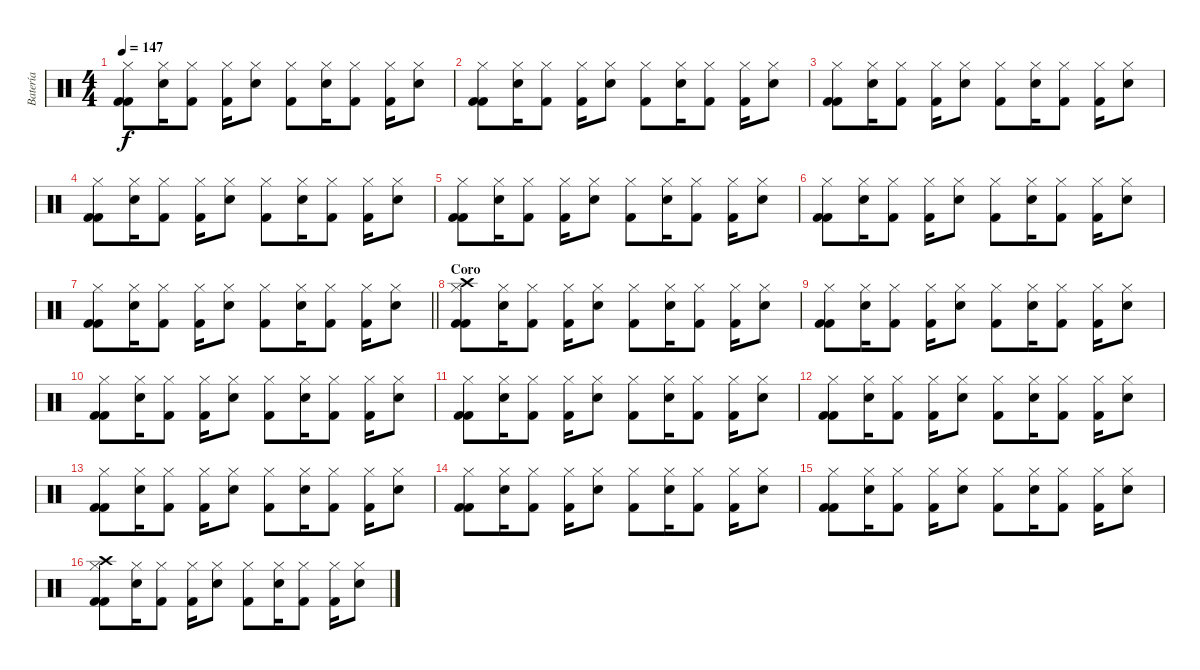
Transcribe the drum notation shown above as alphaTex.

\track ("Batería" "Batería") {instrument percussion}
\staff {score}
\articulation defaults
\ts (4 4)
\tempo 147
\clef neutral
\ks c
("Hi-Hat (closed)" "Kick (hit) 2" "Kick (hit) 2").8{dy f} ("Hi-Hat (closed)" "Electric Snare (hit)").16 ("Hi-Hat (closed)" "Kick (hit) 2").8 ("Hi-Hat (closed)" "Kick (hit) 2").16 ("Hi-Hat (closed)" "Electric Snare (hit)").8 ("Hi-Hat (closed)" "Kick (hit) 2").8 ("Hi-Hat (closed)" "Electric Snare (hit)").16 ("Hi-Hat (closed)" "Kick (hit) 2").8 ("Hi-Hat (closed)" "Kick (hit) 2").16 ("Hi-Hat (closed)" "Electric Snare (hit)").8 |
("Hi-Hat (closed)" "Kick (hit) 2" "Kick (hit) 2").8 ("Hi-Hat (closed)" "Electric Snare (hit)").16 ("Hi-Hat (closed)" "Kick (hit) 2").8 ("Hi-Hat (closed)" "Kick (hit) 2").16 ("Hi-Hat (closed)" "Electric Snare (hit)").8 ("Hi-Hat (closed)" "Kick (hit) 2").8 ("Hi-Hat (closed)" "Electric Snare (hit)").16 ("Hi-Hat (closed)" "Kick (hit) 2").8 ("Hi-Hat (closed)" "Kick (hit) 2").16 ("Hi-Hat (closed)" "Electric Snare (hit)").8 |
("Hi-Hat (closed)" "Kick (hit) 2" "Kick (hit) 2").8 ("Hi-Hat (closed)" "Electric Snare (hit)").16 ("Hi-Hat (closed)" "Kick (hit) 2").8 ("Hi-Hat (closed)" "Kick (hit) 2").16 ("Hi-Hat (closed)" "Electric Snare (hit)").8 ("Hi-Hat (closed)" "Kick (hit) 2").8 ("Hi-Hat (closed)" "Electric Snare (hit)").16 ("Hi-Hat (closed)" "Kick (hit) 2").8 ("Hi-Hat (closed)" "Kick (hit) 2").16 ("Hi-Hat (closed)" "Electric Snare (hit)").8 |
("Hi-Hat (closed)" "Kick (hit) 2" "Kick (hit) 2").8 ("Hi-Hat (closed)" "Electric Snare (hit)").16 ("Hi-Hat (closed)" "Kick (hit) 2").8 ("Hi-Hat (closed)" "Kick (hit) 2").16 ("Hi-Hat (closed)" "Electric Snare (hit)").8 ("Hi-Hat (closed)" "Kick (hit) 2").8 ("Hi-Hat (closed)" "Electric Snare (hit)").16 ("Hi-Hat (closed)" "Kick (hit) 2").8 ("Hi-Hat (closed)" "Kick (hit) 2").16 ("Hi-Hat (closed)" "Electric Snare (hit)").8 |
("Hi-Hat (closed)" "Kick (hit) 2" "Kick (hit) 2").8 ("Hi-Hat (closed)" "Electric Snare (hit)").16 ("Hi-Hat (closed)" "Kick (hit) 2").8 ("Hi-Hat (closed)" "Kick (hit) 2").16 ("Hi-Hat (closed)" "Electric Snare (hit)").8 ("Hi-Hat (closed)" "Kick (hit) 2").8 ("Hi-Hat (closed)" "Electric Snare (hit)").16 ("Hi-Hat (closed)" "Kick (hit) 2").8 ("Hi-Hat (closed)" "Kick (hit) 2").16 ("Hi-Hat (closed)" "Electric Snare (hit)").8 |
("Hi-Hat (closed)" "Kick (hit) 2" "Kick (hit) 2").8 ("Hi-Hat (closed)" "Electric Snare (hit)").16 ("Hi-Hat (closed)" "Kick (hit) 2").8 ("Hi-Hat (closed)" "Kick (hit) 2").16 ("Hi-Hat (closed)" "Electric Snare (hit)").8 ("Hi-Hat (closed)" "Kick (hit) 2").8 ("Hi-Hat (closed)" "Electric Snare (hit)").16 ("Hi-Hat (closed)" "Kick (hit) 2").8 ("Hi-Hat (closed)" "Kick (hit) 2").16 ("Hi-Hat (closed)" "Electric Snare (hit)").8 |
\barLineRight lightlight
("Hi-Hat (closed)" "Kick (hit) 2" "Kick (hit) 2").8 ("Hi-Hat (closed)" "Electric Snare (hit)").16 ("Hi-Hat (closed)" "Kick (hit) 2").8 ("Hi-Hat (closed)" "Kick (hit) 2").16 ("Hi-Hat (closed)" "Electric Snare (hit)").8 ("Hi-Hat (closed)" "Kick (hit) 2").8 ("Hi-Hat (closed)" "Electric Snare (hit)").16 ("Hi-Hat (closed)" "Kick (hit) 2").8 ("Hi-Hat (closed)" "Kick (hit) 2").16 ("Hi-Hat (closed)" "Electric Snare (hit)").8 |
\section ("" "Coro")
("Crash high (hit)" "Hi-Hat (closed)" "Kick (hit) 2" "Kick (hit) 2").8 ("Hi-Hat (closed)" "Electric Snare (hit)").16 ("Hi-Hat (closed)" "Kick (hit) 2").8 ("Hi-Hat (closed)" "Kick (hit) 2").16 ("Hi-Hat (closed)" "Electric Snare (hit)").8 ("Hi-Hat (closed)" "Kick (hit) 2").8 ("Hi-Hat (closed)" "Electric Snare (hit)").16 ("Hi-Hat (closed)" "Kick (hit) 2").8 ("Hi-Hat (closed)" "Kick (hit) 2").16 ("Hi-Hat (closed)" "Electric Snare (hit)").8 |
("Hi-Hat (closed)" "Kick (hit) 2" "Kick (hit) 2").8 ("Hi-Hat (closed)" "Electric Snare (hit)").16 ("Hi-Hat (closed)" "Kick (hit) 2").8 ("Hi-Hat (closed)" "Kick (hit) 2").16 ("Hi-Hat (closed)" "Electric Snare (hit)").8 ("Hi-Hat (closed)" "Kick (hit) 2").8 ("Hi-Hat (closed)" "Electric Snare (hit)").16 ("Hi-Hat (closed)" "Kick (hit) 2").8 ("Hi-Hat (closed)" "Kick (hit) 2").16 ("Hi-Hat (closed)" "Electric Snare (hit)").8 |
("Hi-Hat (closed)" "Kick (hit) 2" "Kick (hit) 2").8 ("Hi-Hat (closed)" "Electric Snare (hit)").16 ("Hi-Hat (closed)" "Kick (hit) 2").8 ("Hi-Hat (closed)" "Kick (hit) 2").16 ("Hi-Hat (closed)" "Electric Snare (hit)").8 ("Hi-Hat (closed)" "Kick (hit) 2").8 ("Hi-Hat (closed)" "Electric Snare (hit)").16 ("Hi-Hat (closed)" "Kick (hit) 2").8 ("Hi-Hat (closed)" "Kick (hit) 2").16 ("Hi-Hat (closed)" "Electric Snare (hit)").8 |
("Hi-Hat (closed)" "Kick (hit) 2" "Kick (hit) 2").8 ("Hi-Hat (closed)" "Electric Snare (hit)").16 ("Hi-Hat (closed)" "Kick (hit) 2").8 ("Hi-Hat (closed)" "Kick (hit) 2").16 ("Hi-Hat (closed)" "Electric Snare (hit)").8 ("Hi-Hat (closed)" "Kick (hit) 2").8 ("Hi-Hat (closed)" "Electric Snare (hit)").16 ("Hi-Hat (closed)" "Kick (hit) 2").8 ("Hi-Hat (closed)" "Kick (hit) 2").16 ("Hi-Hat (closed)" "Electric Snare (hit)").8 |
("Hi-Hat (closed)" "Kick (hit) 2" "Kick (hit) 2").8 ("Hi-Hat (closed)" "Electric Snare (hit)").16 ("Hi-Hat (closed)" "Kick (hit) 2").8 ("Hi-Hat (closed)" "Kick (hit) 2").16 ("Hi-Hat (closed)" "Electric Snare (hit)").8 ("Hi-Hat (closed)" "Kick (hit) 2").8 ("Hi-Hat (closed)" "Electric Snare (hit)").16 ("Hi-Hat (closed)" "Kick (hit) 2").8 ("Hi-Hat (closed)" "Kick (hit) 2").16 ("Hi-Hat (closed)" "Electric Snare (hit)").8 |
("Hi-Hat (closed)" "Kick (hit) 2" "Kick (hit) 2").8 ("Hi-Hat (closed)" "Electric Snare (hit)").16 ("Hi-Hat (closed)" "Kick (hit) 2").8 ("Hi-Hat (closed)" "Kick (hit) 2").16 ("Hi-Hat (closed)" "Electric Snare (hit)").8 ("Hi-Hat (closed)" "Kick (hit) 2").8 ("Hi-Hat (closed)" "Electric Snare (hit)").16 ("Hi-Hat (closed)" "Kick (hit) 2").8 ("Hi-Hat (closed)" "Kick (hit) 2").16 ("Hi-Hat (closed)" "Electric Snare (hit)").8 |
("Hi-Hat (closed)" "Kick (hit) 2" "Kick (hit) 2").8 ("Hi-Hat (closed)" "Electric Snare (hit)").16 ("Hi-Hat (closed)" "Kick (hit) 2").8 ("Hi-Hat (closed)" "Kick (hit) 2").16 ("Hi-Hat (closed)" "Electric Snare (hit)").8 ("Hi-Hat (closed)" "Kick (hit) 2").8 ("Hi-Hat (closed)" "Electric Snare (hit)").16 ("Hi-Hat (closed)" "Kick (hit) 2").8 ("Hi-Hat (closed)" "Kick (hit) 2").16 ("Hi-Hat (closed)" "Electric Snare (hit)").8 |
("Hi-Hat (closed)" "Kick (hit) 2" "Kick (hit) 2").8 ("Hi-Hat (closed)" "Electric Snare (hit)").16 ("Hi-Hat (closed)" "Kick (hit) 2").8 ("Hi-Hat (closed)" "Kick (hit) 2").16 ("Hi-Hat (closed)" "Electric Snare (hit)").8 ("Hi-Hat (closed)" "Kick (hit) 2").8 ("Hi-Hat (closed)" "Electric Snare (hit)").16 ("Hi-Hat (closed)" "Kick (hit) 2").8 ("Hi-Hat (closed)" "Kick (hit) 2").16 ("Hi-Hat (closed)" "Electric Snare (hit)").8 |
("Crash high (hit)" "Hi-Hat (closed)" "Kick (hit) 2" "Kick (hit) 2").8 ("Hi-Hat (closed)" "Electric Snare (hit)").16 ("Hi-Hat (closed)" "Kick (hit) 2").8 ("Hi-Hat (closed)" "Kick (hit) 2").16 ("Hi-Hat (closed)" "Electric Snare (hit)").8 ("Hi-Hat (closed)" "Kick (hit) 2").8 ("Hi-Hat (closed)" "Electric Snare (hit)").16 ("Hi-Hat (closed)" "Kick (hit) 2").8 ("Hi-Hat (closed)" "Kick (hit) 2").16 ("Hi-Hat (closed)" "Electric Snare (hit)").8
